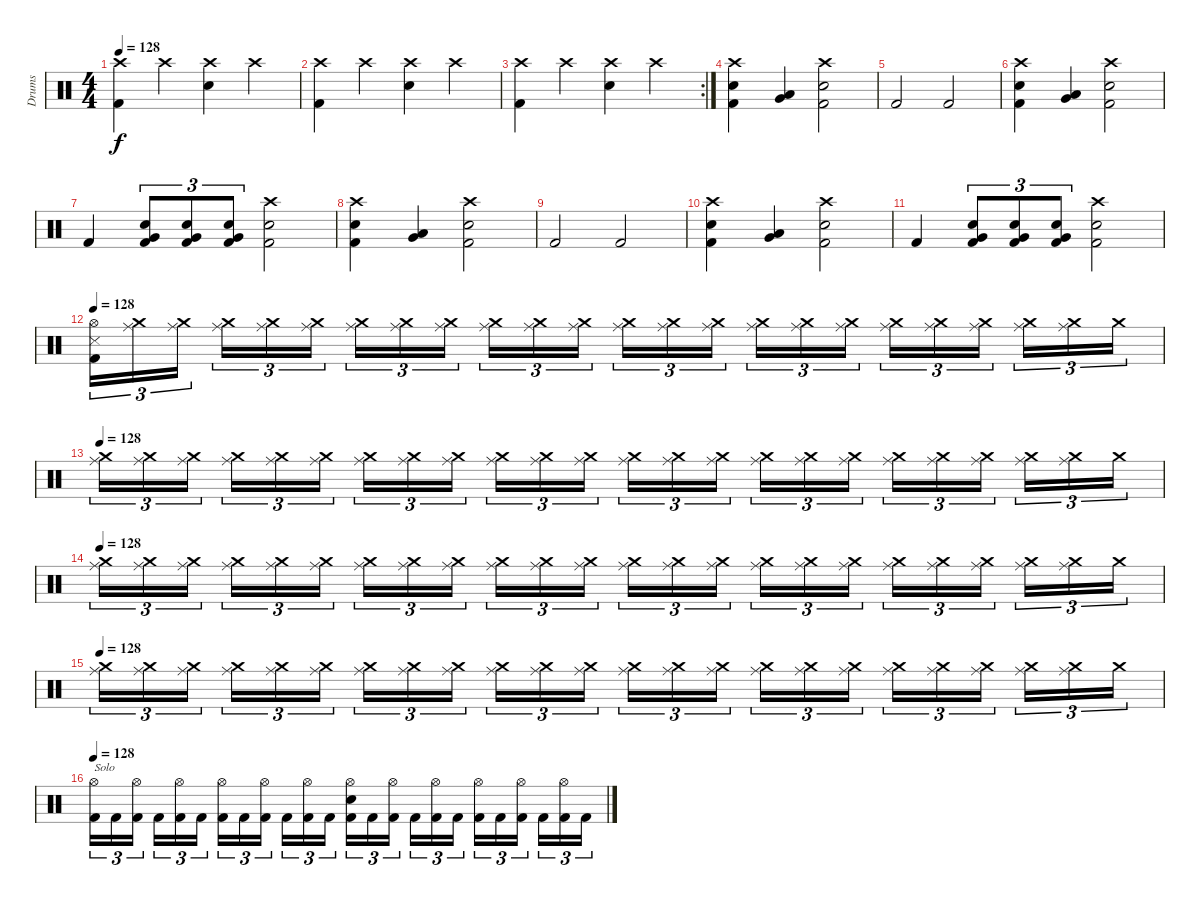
\track ("Drums" "Drums") {instrument percussion}
\staff {score}
\articulation defaults
\ts (4 4)
\tempo 128
\clef neutral
\ks c
("Crash high (hit)" "Kick (hit) 2").4{dy f} "Crash high (hit)".4 ("Crash high (hit)" "Electric Snare (hit)").4 "Crash high (hit)".4 |
("Crash high (hit)" "Kick (hit) 2").4 "Crash high (hit)".4 ("Crash high (hit)" "Electric Snare (hit)").4 "Crash high (hit)".4 |
\rc 2
("Crash high (hit)" "Kick (hit) 2").4 "Crash high (hit)".4 ("Crash high (hit)" "Electric Snare (hit)").4 "Crash high (hit)".4 |
("Crash high (hit)" "Electric Snare (hit)" "Kick (hit) 2").4 ("Very Low Tom (hit)" "Low Floor Tom (hit)").4 ("Crash high (hit)" "Electric Snare (hit)" "Kick (hit) 2").2 |
"Kick (hit) 2".2 "Kick (hit) 2".2 |
("Crash high (hit)" "Electric Snare (hit)" "Kick (hit) 2").4 ("Very Low Tom (hit)" "Low Floor Tom (hit)").4 ("Crash high (hit)" "Electric Snare (hit)" "Kick (hit) 2").2 |
"Kick (hit) 2".4 ("Very Low Tom (hit)" "Electric Snare (hit)" "Kick (hit) 2").8{tu (3 2)} ("Very Low Tom (hit)" "Electric Snare (hit)" "Kick (hit) 2").8{tu (3 2)} ("Very Low Tom (hit)" "Electric Snare (hit)" "Kick (hit) 2").8{tu (3 2)} ("Crash high (hit)" "Electric Snare (hit)" "Kick (hit) 2").2 |
("Crash high (hit)" "Electric Snare (hit)" "Kick (hit) 2").4 ("Very Low Tom (hit)" "Low Floor Tom (hit)").4 ("Crash high (hit)" "Electric Snare (hit)" "Kick (hit) 2").2 |
"Kick (hit) 2".2 "Kick (hit) 2".2 |
("Crash high (hit)" "Electric Snare (hit)" "Kick (hit) 2").4 ("Very Low Tom (hit)" "Low Floor Tom (hit)").4 ("Crash high (hit)" "Electric Snare (hit)" "Kick (hit) 2").2 |
"Kick (hit) 2".4 ("Very Low Tom (hit)" "Electric Snare (hit)" "Kick (hit) 2").8{tu (3 2)} ("Very Low Tom (hit)" "Electric Snare (hit)" "Kick (hit) 2").8{tu (3 2)} ("Very Low Tom (hit)" "Electric Snare (hit)" "Kick (hit) 2").8{tu (3 2)} ("Crash high (hit)" "Electric Snare (hit)" "Kick (hit) 2").2 |
\tempo 128
("Hi-Hat (open)" "Snare (side stick) 3" "Kick (hit) 2").16{tu (3 2) volume 16} ("Ride (middle)" "Crash medium (hit)").16{tu (3 2) volume 1} ("Ride (middle)" "Crash medium (hit)").16{tu (3 2) beam splitsecondary} ("Ride (middle)" "Crash medium (hit)").16{tu (3 2)} ("Ride (middle)" "Crash medium (hit)").16{tu (3 2)} ("Ride (middle)" "Crash medium (hit)").16{tu (3 2)} ("Ride (middle)" "Crash medium (hit)").16{tu (3 2) volume 2} ("Ride (middle)" "Crash medium (hit)").16{tu (3 2)} ("Ride (middle)" "Crash medium (hit)").16{tu (3 2) beam splitsecondary} ("Ride (middle)" "Crash medium (hit)").16{tu (3 2)} ("Ride (middle)" "Crash medium (hit)").16{tu (3 2)} ("Ride (middle)" "Crash medium (hit)").16{tu (3 2)} ("Ride (middle)" "Crash medium (hit)").16{tu (3 2) volume 3} ("Ride (middle)" "Crash medium (hit)").16{tu (3 2)} ("Ride (middle)" "Crash medium (hit)").16{tu (3 2) beam splitsecondary} ("Ride (middle)" "Crash medium (hit)").16{tu (3 2)} ("Ride (middle)" "Crash medium (hit)").16{tu (3 2)} ("Ride (middle)" "Crash medium (hit)").16{tu (3 2)} ("Ride (middle)" "Crash medium (hit)").16{tu (3 2) volume 4} ("Ride (middle)" "Crash medium (hit)").16{tu (3 2)} ("Ride (middle)" "Crash medium (hit)").16{tu (3 2) beam splitsecondary} ("Ride (middle)" "Crash medium (hit)").16{tu (3 2)} ("Ride (middle)" "Crash medium (hit)").16{tu (3 2)} "Crash medium (hit)".16{tu (3 2)} |
\tempo 128
("Ride (middle)" "Crash medium (hit)").16{tu (3 2) volume 5} ("Ride (middle)" "Crash medium (hit)").16{tu (3 2)} ("Ride (middle)" "Crash medium (hit)").16{tu (3 2) beam splitsecondary} ("Ride (middle)" "Crash medium (hit)").16{tu (3 2)} ("Ride (middle)" "Crash medium (hit)").16{tu (3 2)} ("Ride (middle)" "Crash medium (hit)").16{tu (3 2)} ("Ride (middle)" "Crash medium (hit)").16{tu (3 2) volume 6} ("Ride (middle)" "Crash medium (hit)").16{tu (3 2)} ("Ride (middle)" "Crash medium (hit)").16{tu (3 2) beam splitsecondary} ("Ride (middle)" "Crash medium (hit)").16{tu (3 2)} ("Ride (middle)" "Crash medium (hit)").16{tu (3 2)} ("Ride (middle)" "Crash medium (hit)").16{tu (3 2)} ("Ride (middle)" "Crash medium (hit)").16{tu (3 2) volume 7} ("Ride (middle)" "Crash medium (hit)").16{tu (3 2)} ("Ride (middle)" "Crash medium (hit)").16{tu (3 2) beam splitsecondary} ("Ride (middle)" "Crash medium (hit)").16{tu (3 2)} ("Ride (middle)" "Crash medium (hit)").16{tu (3 2)} ("Ride (middle)" "Crash medium (hit)").16{tu (3 2)} ("Ride (middle)" "Crash medium (hit)").16{tu (3 2) volume 8} ("Ride (middle)" "Crash medium (hit)").16{tu (3 2)} ("Ride (middle)" "Crash medium (hit)").16{tu (3 2) beam splitsecondary} ("Ride (middle)" "Crash medium (hit)").16{tu (3 2)} ("Ride (middle)" "Crash medium (hit)").16{tu (3 2)} "Crash medium (hit)".16{tu (3 2)} |
\tempo 128
("Ride (middle)" "Crash medium (hit)").16{tu (3 2) volume 9} ("Ride (middle)" "Crash medium (hit)").16{tu (3 2)} ("Ride (middle)" "Crash medium (hit)").16{tu (3 2) beam splitsecondary} ("Ride (middle)" "Crash medium (hit)").16{tu (3 2)} ("Ride (middle)" "Crash medium (hit)").16{tu (3 2)} ("Ride (middle)" "Crash medium (hit)").16{tu (3 2)} ("Ride (middle)" "Crash medium (hit)").16{tu (3 2) volume 10} ("Ride (middle)" "Crash medium (hit)").16{tu (3 2)} ("Ride (middle)" "Crash medium (hit)").16{tu (3 2) beam splitsecondary} ("Ride (middle)" "Crash medium (hit)").16{tu (3 2)} ("Ride (middle)" "Crash medium (hit)").16{tu (3 2)} ("Ride (middle)" "Crash medium (hit)").16{tu (3 2)} ("Ride (middle)" "Crash medium (hit)").16{tu (3 2) volume 11} ("Ride (middle)" "Crash medium (hit)").16{tu (3 2)} ("Ride (middle)" "Crash medium (hit)").16{tu (3 2) beam splitsecondary} ("Ride (middle)" "Crash medium (hit)").16{tu (3 2)} ("Ride (middle)" "Crash medium (hit)").16{tu (3 2)} ("Ride (middle)" "Crash medium (hit)").16{tu (3 2)} ("Ride (middle)" "Crash medium (hit)").16{tu (3 2) volume 12} ("Ride (middle)" "Crash medium (hit)").16{tu (3 2)} ("Ride (middle)" "Crash medium (hit)").16{tu (3 2) beam splitsecondary} ("Ride (middle)" "Crash medium (hit)").16{tu (3 2)} ("Ride (middle)" "Crash medium (hit)").16{tu (3 2)} "Crash medium (hit)".16{tu (3 2)} |
\tempo 128
("Ride (middle)" "Crash medium (hit)").16{tu (3 2) volume 13} ("Ride (middle)" "Crash medium (hit)").16{tu (3 2)} ("Ride (middle)" "Crash medium (hit)").16{tu (3 2) beam splitsecondary} ("Ride (middle)" "Crash medium (hit)").16{tu (3 2)} ("Ride (middle)" "Crash medium (hit)").16{tu (3 2)} ("Ride (middle)" "Crash medium (hit)").16{tu (3 2)} ("Ride (middle)" "Crash medium (hit)").16{tu (3 2) volume 14} ("Ride (middle)" "Crash medium (hit)").16{tu (3 2)} ("Ride (middle)" "Crash medium (hit)").16{tu (3 2) beam splitsecondary} ("Ride (middle)" "Crash medium (hit)").16{tu (3 2)} ("Ride (middle)" "Crash medium (hit)").16{tu (3 2)} ("Ride (middle)" "Crash medium (hit)").16{tu (3 2)} ("Ride (middle)" "Crash medium (hit)").16{tu (3 2) volume 15} ("Ride (middle)" "Crash medium (hit)").16{tu (3 2)} ("Ride (middle)" "Crash medium (hit)").16{tu (3 2) beam splitsecondary} ("Ride (middle)" "Crash medium (hit)").16{tu (3 2)} ("Ride (middle)" "Crash medium (hit)").16{tu (3 2)} ("Ride (middle)" "Crash medium (hit)").16{tu (3 2)} ("Ride (middle)" "Crash medium (hit)").16{tu (3 2) volume 16} ("Ride (middle)" "Crash medium (hit)").16{tu (3 2)} ("Ride (middle)" "Crash medium (hit)").16{tu (3 2) beam splitsecondary} ("Ride (middle)" "Crash medium (hit)").16{tu (3 2)} ("Ride (middle)" "Crash medium (hit)").16{tu (3 2)} "Crash medium (hit)".16{tu (3 2)} |
\tempo 128
("Hi-Hat (open)" "Kick (hit) 2").16{tu (3 2) txt "Solo"} "Kick (hit) 2".16{tu (3 2)} ("Hi-Hat (open)" "Kick (hit) 2").16{tu (3 2) beam splitsecondary} "Kick (hit) 2".16{tu (3 2)} ("Hi-Hat (open)" "Kick (hit) 2").16{tu (3 2)} "Kick (hit) 2".16{tu (3 2)} ("Hi-Hat (open)" "Kick (hit) 2").16{tu (3 2)} "Kick (hit) 2".16{tu (3 2)} ("Hi-Hat (open)" "Kick (hit) 2").16{tu (3 2) beam splitsecondary} "Kick (hit) 2".16{tu (3 2)} ("Hi-Hat (open)" "Kick (hit) 2").16{tu (3 2)} "Kick (hit) 2".16{tu (3 2)} ("Hi-Hat (open)" "Electric Snare (hit)" "Kick (hit) 2").16{tu (3 2)} "Kick (hit) 2".16{tu (3 2)} ("Hi-Hat (open)" "Kick (hit) 2").16{tu (3 2) beam splitsecondary} "Kick (hit) 2".16{tu (3 2)} ("Hi-Hat (open)" "Kick (hit) 2").16{tu (3 2)} "Kick (hit) 2".16{tu (3 2)} ("Hi-Hat (open)" "Kick (hit) 2").16{tu (3 2)} "Kick (hit) 2".16{tu (3 2)} ("Hi-Hat (open)" "Kick (hit) 2").16{tu (3 2) beam splitsecondary} "Kick (hit) 2".16{tu (3 2)} ("Hi-Hat (open)" "Kick (hit) 2").16{tu (3 2)} "Kick (hit) 2".16{tu (3 2)}
